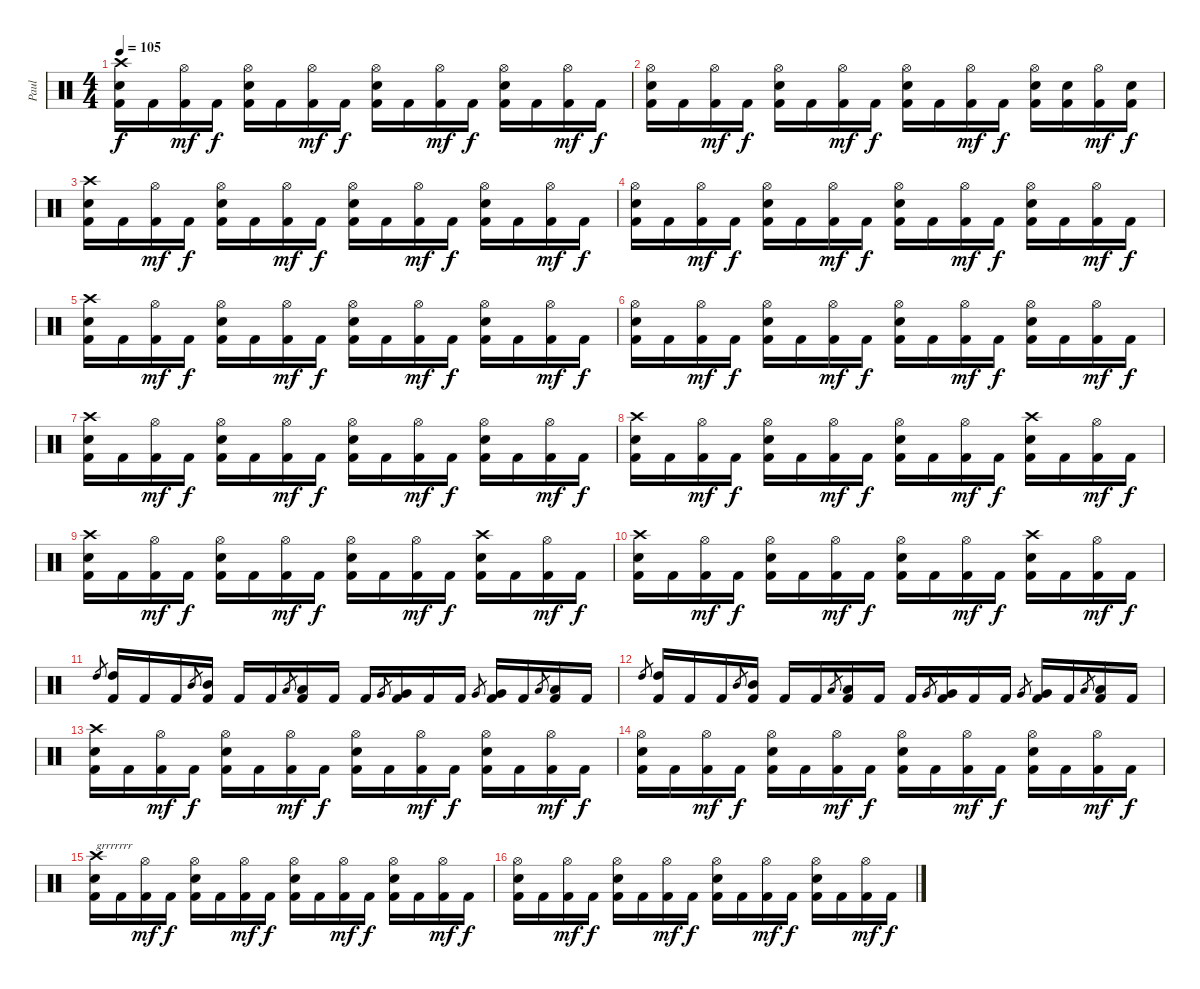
\track ("Paul" "Paul") {instrument percussion}
\staff {score}
\articulation defaults
\ts (4 4)
\tempo 105
\clef neutral
\ks c
("Crash high (hit)" "Electric Snare (hit)" "Kick (hit) 2").16{dy f} "Kick (hit) 2".16 ("Hi-Hat (open)" "Kick (hit) 2").16{dy mf} "Kick (hit) 2".16{dy f} ("Hi-Hat (open)" "Electric Snare (hit)" "Kick (hit) 2").16 "Kick (hit) 2".16 ("Hi-Hat (open)" "Kick (hit) 2").16{dy mf} "Kick (hit) 2".16{dy f} ("Hi-Hat (open)" "Electric Snare (hit)" "Kick (hit) 2").16 "Kick (hit) 2".16 ("Hi-Hat (open)" "Kick (hit) 2").16{dy mf} "Kick (hit) 2".16{dy f} ("Hi-Hat (open)" "Electric Snare (hit)" "Kick (hit) 2").16 "Kick (hit) 2".16 ("Hi-Hat (open)" "Kick (hit) 2").16{dy mf} "Kick (hit) 2".16{dy f} |
("Hi-Hat (open)" "Electric Snare (hit)" "Kick (hit) 2").16 "Kick (hit) 2".16 ("Hi-Hat (open)" "Kick (hit) 2").16{dy mf} "Kick (hit) 2".16{dy f} ("Hi-Hat (open)" "Electric Snare (hit)" "Kick (hit) 2").16 "Kick (hit) 2".16 ("Hi-Hat (open)" "Kick (hit) 2").16{dy mf} "Kick (hit) 2".16{dy f} ("Hi-Hat (open)" "Electric Snare (hit)" "Kick (hit) 2").16 "Kick (hit) 2".16 ("Hi-Hat (open)" "Kick (hit) 2").16{dy mf} "Kick (hit) 2".16{dy f} ("Hi-Hat (open)" "Electric Snare (hit)" "Kick (hit) 2").16 ("Electric Snare (hit)" "Kick (hit) 2").16 ("Hi-Hat (open)" "Kick (hit) 2").16{dy mf} ("Electric Snare (hit)" "Kick (hit) 2").16{dy f} |
("Crash high (hit)" "Electric Snare (hit)" "Kick (hit) 2").16 "Kick (hit) 2".16 ("Hi-Hat (open)" "Kick (hit) 2").16{dy mf} "Kick (hit) 2".16{dy f} ("Hi-Hat (open)" "Electric Snare (hit)" "Kick (hit) 2").16 "Kick (hit) 2".16 ("Hi-Hat (open)" "Kick (hit) 2").16{dy mf} "Kick (hit) 2".16{dy f} ("Hi-Hat (open)" "Electric Snare (hit)" "Kick (hit) 2").16 "Kick (hit) 2".16 ("Hi-Hat (open)" "Kick (hit) 2").16{dy mf} "Kick (hit) 2".16{dy f} ("Hi-Hat (open)" "Electric Snare (hit)" "Kick (hit) 2").16 "Kick (hit) 2".16 ("Hi-Hat (open)" "Kick (hit) 2").16{dy mf} "Kick (hit) 2".16{dy f} |
("Hi-Hat (open)" "Electric Snare (hit)" "Kick (hit) 2").16 "Kick (hit) 2".16 ("Hi-Hat (open)" "Kick (hit) 2").16{dy mf} "Kick (hit) 2".16{dy f} ("Hi-Hat (open)" "Electric Snare (hit)" "Kick (hit) 2").16 "Kick (hit) 2".16 ("Hi-Hat (open)" "Kick (hit) 2").16{dy mf} "Kick (hit) 2".16{dy f} ("Hi-Hat (open)" "Electric Snare (hit)" "Kick (hit) 2").16 "Kick (hit) 2".16 ("Hi-Hat (open)" "Kick (hit) 2").16{dy mf} "Kick (hit) 2".16{dy f} ("Hi-Hat (open)" "Electric Snare (hit)" "Kick (hit) 2").16 "Kick (hit) 2".16 ("Hi-Hat (open)" "Kick (hit) 2").16{dy mf} "Kick (hit) 2".16{dy f} |
("Crash high (hit)" "Electric Snare (hit)" "Kick (hit) 2").16 "Kick (hit) 2".16 ("Hi-Hat (open)" "Kick (hit) 2").16{dy mf} "Kick (hit) 2".16{dy f} ("Hi-Hat (open)" "Electric Snare (hit)" "Kick (hit) 2").16 "Kick (hit) 2".16 ("Hi-Hat (open)" "Kick (hit) 2").16{dy mf} "Kick (hit) 2".16{dy f} ("Hi-Hat (open)" "Electric Snare (hit)" "Kick (hit) 2").16 "Kick (hit) 2".16 ("Hi-Hat (open)" "Kick (hit) 2").16{dy mf} "Kick (hit) 2".16{dy f} ("Hi-Hat (open)" "Electric Snare (hit)" "Kick (hit) 2").16 "Kick (hit) 2".16 ("Hi-Hat (open)" "Kick (hit) 2").16{dy mf} "Kick (hit) 2".16{dy f} |
("Hi-Hat (open)" "Electric Snare (hit)" "Kick (hit) 2").16 "Kick (hit) 2".16 ("Hi-Hat (open)" "Kick (hit) 2").16{dy mf} "Kick (hit) 2".16{dy f} ("Hi-Hat (open)" "Electric Snare (hit)" "Kick (hit) 2").16 "Kick (hit) 2".16 ("Hi-Hat (open)" "Kick (hit) 2").16{dy mf} "Kick (hit) 2".16{dy f} ("Hi-Hat (open)" "Electric Snare (hit)" "Kick (hit) 2").16 "Kick (hit) 2".16 ("Hi-Hat (open)" "Kick (hit) 2").16{dy mf} "Kick (hit) 2".16{dy f} ("Hi-Hat (open)" "Electric Snare (hit)" "Kick (hit) 2").16 "Kick (hit) 2".16 ("Hi-Hat (open)" "Kick (hit) 2").16{dy mf} "Kick (hit) 2".16{dy f} |
("Crash high (hit)" "Electric Snare (hit)" "Kick (hit) 2").16 "Kick (hit) 2".16 ("Hi-Hat (open)" "Kick (hit) 2").16{dy mf} "Kick (hit) 2".16{dy f} ("Hi-Hat (open)" "Electric Snare (hit)" "Kick (hit) 2").16 "Kick (hit) 2".16 ("Hi-Hat (open)" "Kick (hit) 2").16{dy mf} "Kick (hit) 2".16{dy f} ("Hi-Hat (open)" "Electric Snare (hit)" "Kick (hit) 2").16 "Kick (hit) 2".16 ("Hi-Hat (open)" "Kick (hit) 2").16{dy mf} "Kick (hit) 2".16{dy f} ("Hi-Hat (open)" "Electric Snare (hit)" "Kick (hit) 2").16 "Kick (hit) 2".16 ("Hi-Hat (open)" "Kick (hit) 2").16{dy mf} "Kick (hit) 2".16{dy f} |
("Crash high (hit)" "Electric Snare (hit)" "Kick (hit) 2").16 "Kick (hit) 2".16 ("Hi-Hat (open)" "Kick (hit) 2").16{dy mf} "Kick (hit) 2".16{dy f} ("Hi-Hat (open)" "Electric Snare (hit)" "Kick (hit) 2").16 "Kick (hit) 2".16 ("Hi-Hat (open)" "Kick (hit) 2").16{dy mf} "Kick (hit) 2".16{dy f} ("Hi-Hat (open)" "Electric Snare (hit)" "Kick (hit) 2").16 "Kick (hit) 2".16 ("Hi-Hat (open)" "Kick (hit) 2").16{dy mf} "Kick (hit) 2".16{dy f} ("Crash high (hit)" "Electric Snare (hit)" "Kick (hit) 2").16 "Kick (hit) 2".16 ("Hi-Hat (open)" "Kick (hit) 2").16{dy mf} "Kick (hit) 2".16{dy f} |
("Crash high (hit)" "Electric Snare (hit)" "Kick (hit) 2").16 "Kick (hit) 2".16 ("Hi-Hat (open)" "Kick (hit) 2").16{dy mf} "Kick (hit) 2".16{dy f} ("Hi-Hat (open)" "Electric Snare (hit)" "Kick (hit) 2").16 "Kick (hit) 2".16 ("Hi-Hat (open)" "Kick (hit) 2").16{dy mf} "Kick (hit) 2".16{dy f} ("Hi-Hat (open)" "Electric Snare (hit)" "Kick (hit) 2").16 "Kick (hit) 2".16 ("Hi-Hat (open)" "Kick (hit) 2").16{dy mf} "Kick (hit) 2".16{dy f} ("Crash high (hit)" "Electric Snare (hit)" "Kick (hit) 2").16 "Kick (hit) 2".16 ("Hi-Hat (open)" "Kick (hit) 2").16{dy mf} "Kick (hit) 2".16{dy f} |
("Crash high (hit)" "Electric Snare (hit)" "Kick (hit) 2").16 "Kick (hit) 2".16 ("Hi-Hat (open)" "Kick (hit) 2").16{dy mf} "Kick (hit) 2".16{dy f} ("Hi-Hat (open)" "Electric Snare (hit)" "Kick (hit) 2").16 "Kick (hit) 2".16 ("Hi-Hat (open)" "Kick (hit) 2").16{dy mf} "Kick (hit) 2".16{dy f} ("Hi-Hat (open)" "Electric Snare (hit)" "Kick (hit) 2").16 "Kick (hit) 2".16 ("Hi-Hat (open)" "Kick (hit) 2").16{dy mf} "Kick (hit) 2".16{dy f} ("Crash high (hit)" "Electric Snare (hit)" "Kick (hit) 2").16 "Kick (hit) 2".16 ("Hi-Hat (open)" "Kick (hit) 2").16{dy mf} "Kick (hit) 2".16{dy f} |
"High Tom (hit)".8{gr} ("High Tom (hit)" "Kick (hit) 2").16 "Kick (hit) 2".16 "Kick (hit) 2".16 "Mid Tom (hit)".8{gr} ("Mid Tom (hit)" "Kick (hit) 2").16 "Kick (hit) 2".16 "Kick (hit) 2".16 "Low Tom (hit)".8{gr} ("Low Tom (hit)" "Kick (hit) 2").16 "Kick (hit) 2".16 "Kick (hit) 2".16 "Very Low Tom (hit)".8{gr} ("Very Low Tom (hit)" "Kick (hit) 2").16 "Kick (hit) 2".16 "Kick (hit) 2".16 "Very Low Tom (hit)".8{gr} ("Very Low Tom (hit)" "Kick (hit) 2").16 "Kick (hit) 2".16 "Low Floor Tom (hit)".8{gr} ("Low Floor Tom (hit)" "Kick (hit) 2").16 "Kick (hit) 2".16 |
"High Tom (hit)".8{gr} ("High Tom (hit)" "Kick (hit) 2").16 "Kick (hit) 2".16 "Kick (hit) 2".16 "Mid Tom (hit)".8{gr} ("Mid Tom (hit)" "Kick (hit) 2").16 "Kick (hit) 2".16 "Kick (hit) 2".16 "Low Tom (hit)".8{gr} ("Low Tom (hit)" "Kick (hit) 2").16 "Kick (hit) 2".16 "Kick (hit) 2".16 "Very Low Tom (hit)".8{gr} ("Very Low Tom (hit)" "Kick (hit) 2").16 "Kick (hit) 2".16 "Kick (hit) 2".16 "Very Low Tom (hit)".8{gr} ("Very Low Tom (hit)" "Kick (hit) 2").16 "Kick (hit) 2".16 "Low Floor Tom (hit)".8{gr} ("Low Floor Tom (hit)" "Kick (hit) 2").16 "Kick (hit) 2".16 |
("Crash high (hit)" "Electric Snare (hit)" "Kick (hit) 2").16 "Kick (hit) 2".16 ("Hi-Hat (open)" "Kick (hit) 2").16{dy mf} "Kick (hit) 2".16{dy f} ("Hi-Hat (open)" "Electric Snare (hit)" "Kick (hit) 2").16 "Kick (hit) 2".16 ("Hi-Hat (open)" "Kick (hit) 2").16{dy mf} "Kick (hit) 2".16{dy f} ("Hi-Hat (open)" "Electric Snare (hit)" "Kick (hit) 2").16 "Kick (hit) 2".16 ("Hi-Hat (open)" "Kick (hit) 2").16{dy mf} "Kick (hit) 2".16{dy f} ("Hi-Hat (open)" "Electric Snare (hit)" "Kick (hit) 2").16 "Kick (hit) 2".16 ("Hi-Hat (open)" "Kick (hit) 2").16{dy mf} "Kick (hit) 2".16{dy f} |
("Hi-Hat (open)" "Electric Snare (hit)" "Kick (hit) 2").16 "Kick (hit) 2".16 ("Hi-Hat (open)" "Kick (hit) 2").16{dy mf} "Kick (hit) 2".16{dy f} ("Hi-Hat (open)" "Electric Snare (hit)" "Kick (hit) 2").16 "Kick (hit) 2".16 ("Hi-Hat (open)" "Kick (hit) 2").16{dy mf} "Kick (hit) 2".16{dy f} ("Hi-Hat (open)" "Electric Snare (hit)" "Kick (hit) 2").16 "Kick (hit) 2".16 ("Hi-Hat (open)" "Kick (hit) 2").16{dy mf} "Kick (hit) 2".16{dy f} ("Hi-Hat (open)" "Electric Snare (hit)" "Kick (hit) 2").16 "Kick (hit) 2".16 ("Hi-Hat (open)" "Kick (hit) 2").16{dy mf} "Kick (hit) 2".16{dy f} |
("Crash high (hit)" "Electric Snare (hit)" "Kick (hit) 2").16{txt "grrrrrrr"} "Kick (hit) 2".16 ("Hi-Hat (open)" "Kick (hit) 2").16{dy mf} "Kick (hit) 2".16{dy f} ("Hi-Hat (open)" "Electric Snare (hit)" "Kick (hit) 2").16 "Kick (hit) 2".16 ("Hi-Hat (open)" "Kick (hit) 2").16{dy mf} "Kick (hit) 2".16{dy f} ("Hi-Hat (open)" "Electric Snare (hit)" "Kick (hit) 2").16 "Kick (hit) 2".16 ("Hi-Hat (open)" "Kick (hit) 2").16{dy mf} "Kick (hit) 2".16{dy f} ("Hi-Hat (open)" "Electric Snare (hit)" "Kick (hit) 2").16 "Kick (hit) 2".16 ("Hi-Hat (open)" "Kick (hit) 2").16{dy mf} "Kick (hit) 2".16{dy f} |
("Hi-Hat (open)" "Electric Snare (hit)" "Kick (hit) 2").16 "Kick (hit) 2".16 ("Hi-Hat (open)" "Kick (hit) 2").16{dy mf} "Kick (hit) 2".16{dy f} ("Hi-Hat (open)" "Electric Snare (hit)" "Kick (hit) 2").16 "Kick (hit) 2".16 ("Hi-Hat (open)" "Kick (hit) 2").16{dy mf} "Kick (hit) 2".16{dy f} ("Hi-Hat (open)" "Electric Snare (hit)" "Kick (hit) 2").16 "Kick (hit) 2".16 ("Hi-Hat (open)" "Kick (hit) 2").16{dy mf} "Kick (hit) 2".16{dy f} ("Hi-Hat (open)" "Electric Snare (hit)" "Kick (hit) 2").16 "Kick (hit) 2".16 ("Hi-Hat (open)" "Kick (hit) 2").16{dy mf} "Kick (hit) 2".16{dy f}
